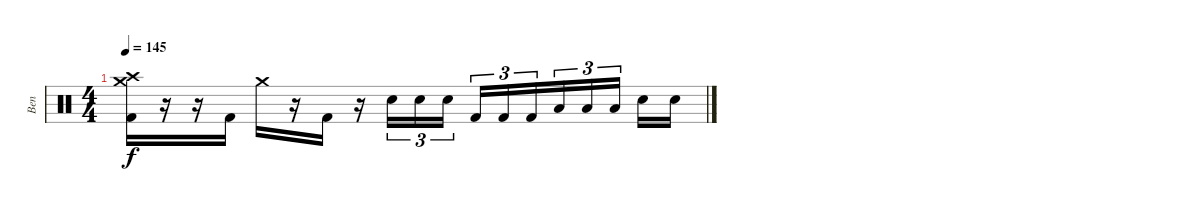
\track ("Ben" "Ben") {instrument percussion}
\staff {score}
\articulation defaults
\ts (4 4)
\tempo 145
\clef neutral
\ks c
("Kick (hit) 2" "Crash medium (hit)" "Crash high (hit)").16{dy f} r.16{beam merge} r.16 "Kick (hit) 2".16 "Crash medium (hit)".16{beam merge} r.16{beam merge} "Kick (hit) 2".16 r.16{beam merge} "Electric Snare (hit)".16{tu (3 2) beam merge} "Electric Snare (hit)".16{tu (3 2)} "Electric Snare (hit)".16{tu (3 2) beam splitsecondary} "Kick (hit) 2".16{tu (3 2)} "Kick (hit) 2".16{tu (3 2) beam merge} "Kick (hit) 2".16{tu (3 2) beam merge} "Low Tom (hit)".16{tu (3 2)} "Low Tom (hit)".16{tu (3 2)} "Low Tom (hit)".16{tu (3 2) beam splitsecondary} "Electric Snare (hit)".16 "Electric Snare (hit)".16
